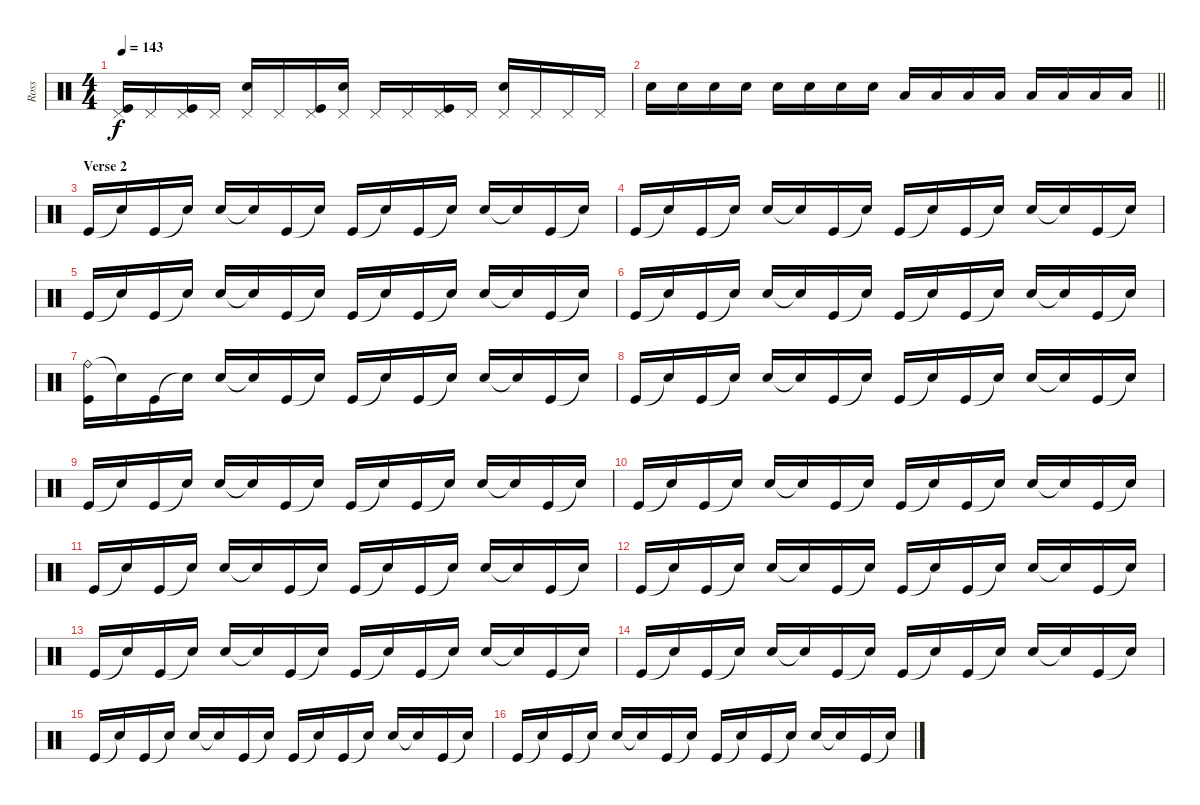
\track ("Ross" "Ross") {instrument percussion}
\staff {score}
\articulation defaults
\ts (4 4)
\tempo 143
\clef neutral
\ks c
("Pedal Hi-Hat (hit)" "Kick (hit)").16{dy f} "Pedal Hi-Hat (hit)".16 ("Pedal Hi-Hat (hit)" "Kick (hit)").16 "Pedal Hi-Hat (hit)".16 ("Pedal Hi-Hat (hit)" "Snare (hit) 2").16 "Pedal Hi-Hat (hit)".16 ("Pedal Hi-Hat (hit)" "Kick (hit)").16 ("Pedal Hi-Hat (hit)" "Snare (hit) 2").16 "Pedal Hi-Hat (hit)".16 "Pedal Hi-Hat (hit)".16 ("Pedal Hi-Hat (hit)" "Kick (hit)").16 "Pedal Hi-Hat (hit)".16 ("Pedal Hi-Hat (hit)" "Snare (hit) 2").16 "Pedal Hi-Hat (hit)".16 "Pedal Hi-Hat (hit)".16 "Pedal Hi-Hat (hit)".16 |
\barLineRight lightlight "Snare (hit) 2".16 "Snare (hit) 2".16 "Snare (hit) 2".16 "Snare (hit) 2".16 "Snare (hit) 2".16 "Snare (hit) 2".16 "Snare (hit) 2".16 "Snare (hit) 2".16 "Low Tom (hit)".16 "Low Tom (hit)".16 "Low Tom (hit)".16 "Low Tom (hit)".16 "Low Tom (hit)".16 "Low Tom (hit)".16 "Low Tom (hit)".16 "Low Tom (hit)".16
|
\section ("" "Verse 2")
"Kick (hit)".16 "Snare (hit)"{t}.16 "Kick (hit)".16 "Snare (hit)"{t}.16 "Snare (hit) 2".16 "Snare (hit)"{t}.16 "Kick (hit)".16 "Snare (hit)"{t}.16 "Kick (hit)".16 "Snare (hit)"{t}.16 "Kick (hit)".16 "Snare (hit)"{t}.16 "Snare (hit) 2".16 "Snare (hit)"{t}.16 "Kick (hit)".16 "Snare (hit)"{t}.16 |
"Kick (hit)".16 "Snare (hit)"{t}.16 "Kick (hit)".16 "Snare (hit)"{t}.16 "Snare (hit) 2".16 "Snare (hit)"{t}.16 "Kick (hit)".16 "Snare (hit)"{t}.16 "Kick (hit)".16 "Snare (hit)"{t}.16 "Kick (hit)".16 "Snare (hit)"{t}.16 "Snare (hit) 2".16 "Snare (hit)"{t}.16 "Kick (hit)".16 "Snare (hit)"{t}.16 |
"Kick (hit)".16 "Snare (hit)"{t}.16 "Kick (hit)".16 "Snare (hit)"{t}.16 "Snare (hit) 2".16 "Snare (hit)"{t}.16 "Kick (hit)".16 "Snare (hit)"{t}.16 "Kick (hit)".16 "Snare (hit)"{t}.16 "Kick (hit)".16 "Snare (hit)"{t}.16 "Snare (hit) 2".16 "Snare (hit)"{t}.16 "Kick (hit)".16 "Snare (hit)"{t}.16 |
"Kick (hit)".16 "Snare (hit)"{t}.16 "Kick (hit)".16 "Snare (hit)"{t}.16 "Snare (hit) 2".16 "Snare (hit)"{t}.16 "Kick (hit)".16 "Snare (hit)"{t}.16 "Kick (hit)".16 "Snare (hit)"{t}.16 "Kick (hit)".16 "Snare (hit)"{t}.16 "Snare (hit) 2".16 "Snare (hit)"{t}.16 "Kick (hit)".16 "Snare (hit)"{t}.16 |
("Ride (bell)" "Kick (hit)").16 "Snare (hit)"{t}.16 "Kick (hit)".16 "Snare (hit)"{t}.16 "Snare (hit) 2".16 "Snare (hit)"{t}.16 "Kick (hit)".16 "Snare (hit)"{t}.16 "Kick (hit)".16 "Snare (hit)"{t}.16 "Kick (hit)".16 "Snare (hit)"{t}.16 "Snare (hit) 2".16 "Snare (hit)"{t}.16 "Kick (hit)".16 "Snare (hit)"{t}.16 |
"Kick (hit)".16 "Snare (hit)"{t}.16 "Kick (hit)".16 "Snare (hit)"{t}.16 "Snare (hit) 2".16 "Snare (hit)"{t}.16 "Kick (hit)".16 "Snare (hit)"{t}.16 "Kick (hit)".16 "Snare (hit)"{t}.16 "Kick (hit)".16 "Snare (hit)"{t}.16 "Snare (hit) 2".16 "Snare (hit)"{t}.16 "Kick (hit)".16 "Snare (hit)"{t}.16 |
"Kick (hit)".16 "Snare (hit)"{t}.16 "Kick (hit)".16 "Snare (hit)"{t}.16 "Snare (hit) 2".16 "Snare (hit)"{t}.16 "Kick (hit)".16 "Snare (hit)"{t}.16 "Kick (hit)".16 "Snare (hit)"{t}.16 "Kick (hit)".16 "Snare (hit)"{t}.16 "Snare (hit) 2".16 "Snare (hit)"{t}.16 "Kick (hit)".16 "Snare (hit)"{t}.16 |
"Kick (hit)".16 "Snare (hit)"{t}.16 "Kick (hit)".16 "Snare (hit)"{t}.16 "Snare (hit) 2".16 "Snare (hit)"{t}.16 "Kick (hit)".16 "Snare (hit)"{t}.16 "Kick (hit)".16 "Snare (hit)"{t}.16 "Kick (hit)".16 "Snare (hit)"{t}.16 "Snare (hit) 2".16 "Snare (hit)"{t}.16 "Kick (hit)".16 "Snare (hit)"{t}.16 |
"Kick (hit)".16 "Snare (hit)"{t}.16 "Kick (hit)".16 "Snare (hit)"{t}.16 "Snare (hit) 2".16 "Snare (hit)"{t}.16 "Kick (hit)".16 "Snare (hit)"{t}.16 "Kick (hit)".16 "Snare (hit)"{t}.16 "Kick (hit)".16 "Snare (hit)"{t}.16 "Snare (hit) 2".16 "Snare (hit)"{t}.16 "Kick (hit)".16 "Snare (hit)"{t}.16 |
"Kick (hit)".16 "Snare (hit)"{t}.16 "Kick (hit)".16 "Snare (hit)"{t}.16 "Snare (hit) 2".16 "Snare (hit)"{t}.16 "Kick (hit)".16 "Snare (hit)"{t}.16 "Kick (hit)".16 "Snare (hit)"{t}.16 "Kick (hit)".16 "Snare (hit)"{t}.16 "Snare (hit) 2".16 "Snare (hit)"{t}.16 "Kick (hit)".16 "Snare (hit)"{t}.16 |
"Kick (hit)".16 "Snare (hit)"{t}.16 "Kick (hit)".16 "Snare (hit)"{t}.16 "Snare (hit) 2".16 "Snare (hit)"{t}.16 "Kick (hit)".16 "Snare (hit)"{t}.16 "Kick (hit)".16 "Snare (hit)"{t}.16 "Kick (hit)".16 "Snare (hit)"{t}.16 "Snare (hit) 2".16 "Snare (hit)"{t}.16 "Kick (hit)".16 "Snare (hit)"{t}.16 |
"Kick (hit)".16 "Snare (hit)"{t}.16 "Kick (hit)".16 "Snare (hit)"{t}.16 "Snare (hit) 2".16 "Snare (hit)"{t}.16 "Kick (hit)".16 "Snare (hit)"{t}.16 "Kick (hit)".16 "Snare (hit)"{t}.16 "Kick (hit)".16 "Snare (hit)"{t}.16 "Snare (hit) 2".16 "Snare (hit)"{t}.16 "Kick (hit)".16 "Snare (hit)"{t}.16 |
"Kick (hit)".16 "Snare (hit)"{t}.16 "Kick (hit)".16 "Snare (hit)"{t}.16 "Snare (hit) 2".16 "Snare (hit)"{t}.16 "Kick (hit)".16 "Snare (hit)"{t}.16 "Kick (hit)".16 "Snare (hit)"{t}.16 "Kick (hit)".16 "Snare (hit)"{t}.16 "Snare (hit) 2".16 "Snare (hit)"{t}.16 "Kick (hit)".16 "Snare (hit)"{t}.16 |
"Kick (hit)".16 "Snare (hit)"{t}.16 "Kick (hit)".16 "Snare (hit)"{t}.16 "Snare (hit) 2".16 "Snare (hit)"{t}.16 "Kick (hit)".16 "Snare (hit)"{t}.16 "Kick (hit)".16 "Snare (hit)"{t}.16 "Kick (hit)".16 "Snare (hit)"{t}.16 "Snare (hit) 2".16 "Snare (hit)"{t}.16 "Kick (hit)".16 "Snare (hit)"{t}.16
